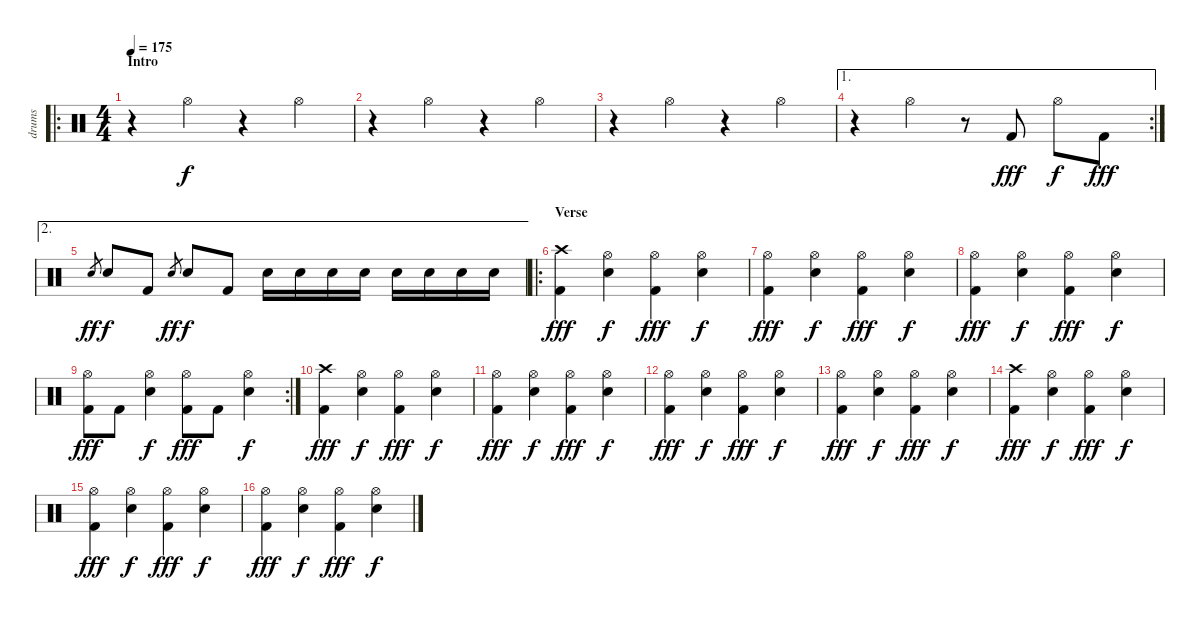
\track ("drums" "drums") {instrument percussion}
\staff {score}
\articulation defaults
\ro
\ts (4 4)
\section ("" "Intro")
\tempo 175
\clef neutral
\ks c
r.4{dy f} "Hi-Hat (open)".4 r.4 "Hi-Hat (open)".4 |
r.4 "Hi-Hat (open)".4 r.4 "Hi-Hat (open)".4 |
r.4 "Hi-Hat (open)".4 r.4 "Hi-Hat (open)".4 |
\ae 1
\rc 2
r.4 "Hi-Hat (open)".4 r.8 "Kick (hit) 2".8{dy fff} "Hi-Hat (open)".8{dy f} "Kick (hit) 2".8{dy fff} |
\ae 2 "Snare (hit) 2".8{gr dy ff} "Snare (hit) 2".8{dy f} "Kick (hit) 2".8 "Snare (hit) 2".8{gr dy ff} "Snare (hit) 2".8{dy f} "Kick (hit) 2".8 "Snare (hit) 2".16 "Snare (hit) 2".16 "Snare (hit) 2".16 "Snare (hit) 2".16 "Snare (hit) 2".16 "Snare (hit) 2".16 "Snare (hit) 2".16 "Snare (hit) 2".16
|
\ro
\section ("" "Verse")
("Crash high (hit)" "Kick (hit) 2").4{dy fff} ("Hi-Hat (open)" "Snare (hit) 2").4{dy f} ("Hi-Hat (open)" "Kick (hit) 2").4{dy fff} ("Hi-Hat (open)" "Snare (hit) 2").4{dy f} |
("Hi-Hat (open)" "Kick (hit) 2").4{dy fff} ("Hi-Hat (open)" "Snare (hit) 2").4{dy f} ("Hi-Hat (open)" "Kick (hit) 2").4{dy fff} ("Hi-Hat (open)" "Snare (hit) 2").4{dy f} |
("Hi-Hat (open)" "Kick (hit) 2").4{dy fff} ("Hi-Hat (open)" "Snare (hit) 2").4{dy f} ("Hi-Hat (open)" "Kick (hit) 2").4{dy fff} ("Hi-Hat (open)" "Snare (hit) 2").4{dy f} |
\rc 2
("Hi-Hat (open)" "Kick (hit) 2").8{dy fff} "Kick (hit) 2".8 ("Hi-Hat (open)" "Snare (hit) 2").4{dy f} ("Hi-Hat (open)" "Kick (hit) 2").8{dy fff} "Kick (hit) 2".8 ("Hi-Hat (open)" "Snare (hit) 2").4{dy f} |
("Crash high (hit)" "Kick (hit) 2").4{dy fff} ("Hi-Hat (open)" "Snare (hit) 2").4{dy f} ("Hi-Hat (open)" "Kick (hit) 2").4{dy fff} ("Hi-Hat (open)" "Snare (hit) 2").4{dy f} |
("Hi-Hat (open)" "Kick (hit) 2").4{dy fff} ("Hi-Hat (open)" "Snare (hit) 2").4{dy f} ("Hi-Hat (open)" "Kick (hit) 2").4{dy fff} ("Hi-Hat (open)" "Snare (hit) 2").4{dy f} |
("Hi-Hat (open)" "Kick (hit) 2").4{dy fff} ("Hi-Hat (open)" "Snare (hit) 2").4{dy f} ("Hi-Hat (open)" "Kick (hit) 2").4{dy fff} ("Hi-Hat (open)" "Snare (hit) 2").4{dy f} |
("Hi-Hat (open)" "Kick (hit) 2").4{dy fff} ("Hi-Hat (open)" "Snare (hit) 2").4{dy f} ("Hi-Hat (open)" "Kick (hit) 2").4{dy fff} ("Hi-Hat (open)" "Snare (hit) 2").4{dy f} |
("Crash high (hit)" "Kick (hit) 2").4{dy fff} ("Hi-Hat (open)" "Snare (hit) 2").4{dy f} ("Hi-Hat (open)" "Kick (hit) 2").4{dy fff} ("Hi-Hat (open)" "Snare (hit) 2").4{dy f} |
("Hi-Hat (open)" "Kick (hit) 2").4{dy fff} ("Hi-Hat (open)" "Snare (hit) 2").4{dy f} ("Hi-Hat (open)" "Kick (hit) 2").4{dy fff} ("Hi-Hat (open)" "Snare (hit) 2").4{dy f} |
("Hi-Hat (open)" "Kick (hit) 2").4{dy fff} ("Hi-Hat (open)" "Snare (hit) 2").4{dy f} ("Hi-Hat (open)" "Kick (hit) 2").4{dy fff} ("Hi-Hat (open)" "Snare (hit) 2").4{dy f}
